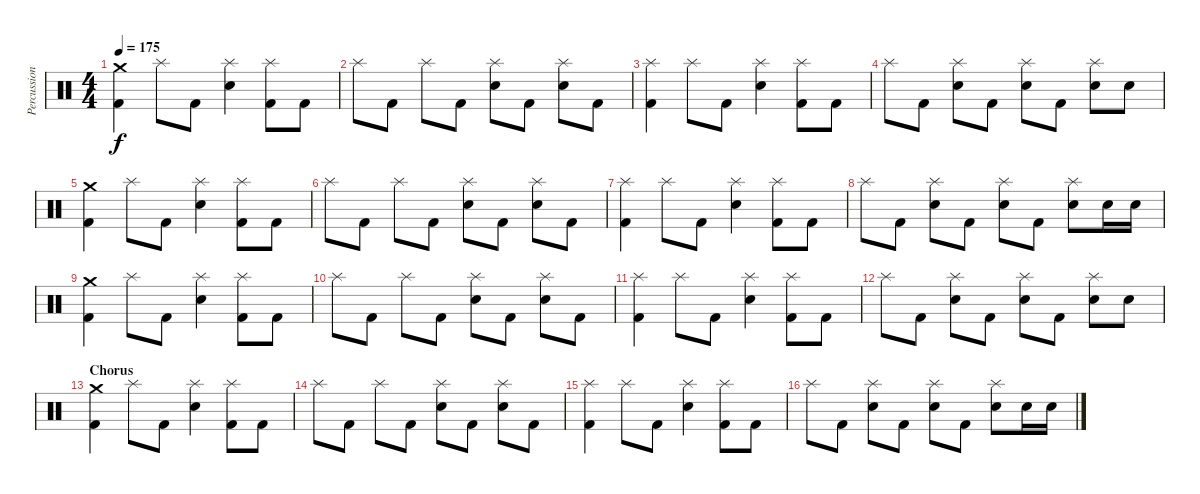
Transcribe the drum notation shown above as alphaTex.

\track ("Percussion" "Percussion") {instrument percussion}
\staff {score}
\articulation defaults
\ts (4 4)
\tempo 175
\clef neutral
\ks c
("Crash medium (hit)" "Kick (hit) 2").4{dy f} "Splash (hit)".8 "Kick (hit) 2".8 ("Splash (hit)" "Electric Snare (hit)").4 ("Splash (hit)" "Kick (hit) 2").8 "Kick (hit) 2".8 |
"Splash (hit)".8 "Kick (hit) 2".8 "Splash (hit)".8 "Kick (hit) 2".8 ("Splash (hit)" "Electric Snare (hit)").8 "Kick (hit) 2".8 ("Splash (hit)" "Electric Snare (hit)").8 "Kick (hit) 2".8 |
("Splash (hit)" "Kick (hit) 2").4 "Splash (hit)".8 "Kick (hit) 2".8 ("Splash (hit)" "Electric Snare (hit)").4 ("Splash (hit)" "Kick (hit) 2").8 "Kick (hit) 2".8 |
"Splash (hit)".8 "Kick (hit) 2".8 ("Splash (hit)" "Electric Snare (hit)").8 "Kick (hit) 2".8 ("Splash (hit)" "Electric Snare (hit)").8 "Kick (hit) 2".8 ("Splash (hit)" "Electric Snare (hit)").8 "Electric Snare (hit)".8 |
("Crash medium (hit)" "Kick (hit) 2").4 "Splash (hit)".8 "Kick (hit) 2".8 ("Splash (hit)" "Electric Snare (hit)").4 ("Splash (hit)" "Kick (hit) 2").8 "Kick (hit) 2".8 |
"Splash (hit)".8 "Kick (hit) 2".8 "Splash (hit)".8 "Kick (hit) 2".8 ("Splash (hit)" "Electric Snare (hit)").8 "Kick (hit) 2".8 ("Splash (hit)" "Electric Snare (hit)").8 "Kick (hit) 2".8 |
("Splash (hit)" "Kick (hit) 2").4 "Splash (hit)".8 "Kick (hit) 2".8 ("Splash (hit)" "Electric Snare (hit)").4 ("Splash (hit)" "Kick (hit) 2").8 "Kick (hit) 2".8 |
"Splash (hit)".8 "Kick (hit) 2".8 ("Splash (hit)" "Electric Snare (hit)").8 "Kick (hit) 2".8 ("Splash (hit)" "Electric Snare (hit)").8 "Kick (hit) 2".8 ("Splash (hit)" "Electric Snare (hit)").8 "Electric Snare (hit)".16 "Electric Snare (hit)".16 |
("Crash medium (hit)" "Kick (hit) 2").4 "Splash (hit)".8 "Kick (hit) 2".8 ("Splash (hit)" "Electric Snare (hit)").4 ("Splash (hit)" "Kick (hit) 2").8 "Kick (hit) 2".8 |
"Splash (hit)".8 "Kick (hit) 2".8 "Splash (hit)".8 "Kick (hit) 2".8 ("Splash (hit)" "Electric Snare (hit)").8 "Kick (hit) 2".8 ("Splash (hit)" "Electric Snare (hit)").8 "Kick (hit) 2".8 |
("Splash (hit)" "Kick (hit) 2").4 "Splash (hit)".8 "Kick (hit) 2".8 ("Splash (hit)" "Electric Snare (hit)").4 ("Splash (hit)" "Kick (hit) 2").8 "Kick (hit) 2".8 |
"Splash (hit)".8 "Kick (hit) 2".8 ("Splash (hit)" "Electric Snare (hit)").8 "Kick (hit) 2".8 ("Splash (hit)" "Electric Snare (hit)").8 "Kick (hit) 2".8 ("Splash (hit)" "Electric Snare (hit)").8 "Electric Snare (hit)".8 |
\section ("" "Chorus")
("Crash medium (hit)" "Kick (hit) 2").4 "Splash (hit)".8 "Kick (hit) 2".8 ("Splash (hit)" "Electric Snare (hit)").4 ("Splash (hit)" "Kick (hit) 2").8 "Kick (hit) 2".8 |
"Splash (hit)".8 "Kick (hit) 2".8 "Splash (hit)".8 "Kick (hit) 2".8 ("Splash (hit)" "Electric Snare (hit)").8 "Kick (hit) 2".8 ("Splash (hit)" "Electric Snare (hit)").8 "Kick (hit) 2".8 |
("Splash (hit)" "Kick (hit) 2").4 "Splash (hit)".8 "Kick (hit) 2".8 ("Splash (hit)" "Electric Snare (hit)").4 ("Splash (hit)" "Kick (hit) 2").8 "Kick (hit) 2".8 |
"Splash (hit)".8 "Kick (hit) 2".8 ("Splash (hit)" "Electric Snare (hit)").8 "Kick (hit) 2".8 ("Splash (hit)" "Electric Snare (hit)").8 "Kick (hit) 2".8 ("Splash (hit)" "Electric Snare (hit)").8 "Electric Snare (hit)".16 "Electric Snare (hit)".16
